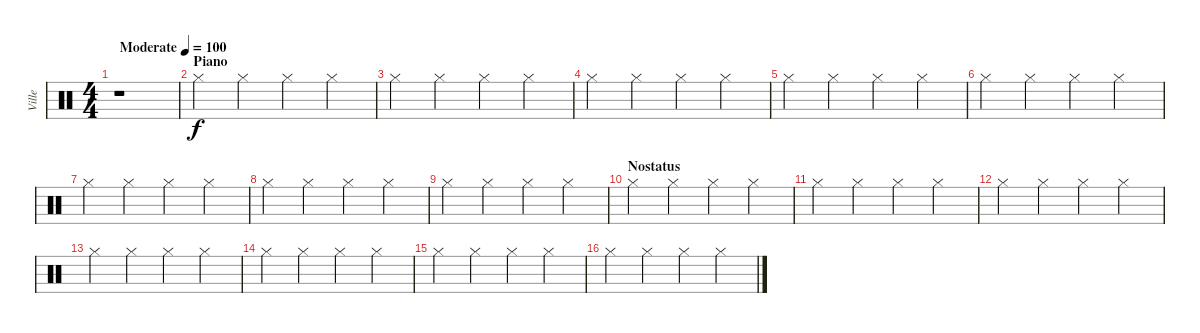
\track ("Ville" "Ville") {instrument percussion}
\staff {score}
\articulation defaults
\ts (4 4)
\tempo (100 "Moderate")
\clef neutral
\ks c
r.1{dy f} |
\section ("" "Piano")
"Hi-Hat (closed)".4 "Hi-Hat (closed)".4 "Hi-Hat (closed)".4 "Hi-Hat (closed)".4 |
"Hi-Hat (closed)".4 "Hi-Hat (closed)".4 "Hi-Hat (closed)".4 "Hi-Hat (closed)".4 |
"Hi-Hat (closed)".4 "Hi-Hat (closed)".4 "Hi-Hat (closed)".4 "Hi-Hat (closed)".4 |
"Hi-Hat (closed)".4 "Hi-Hat (closed)".4 "Hi-Hat (closed)".4 "Hi-Hat (closed)".4 |
"Hi-Hat (closed)".4 "Hi-Hat (closed)".4 "Hi-Hat (closed)".4 "Hi-Hat (closed)".4 |
"Hi-Hat (closed)".4 "Hi-Hat (closed)".4 "Hi-Hat (closed)".4 "Hi-Hat (closed)".4 |
"Hi-Hat (closed)".4 "Hi-Hat (closed)".4 "Hi-Hat (closed)".4 "Hi-Hat (closed)".4 |
"Hi-Hat (closed)".4 "Hi-Hat (closed)".4 "Hi-Hat (closed)".4 "Hi-Hat (closed)".4 |
\section ("" "Nostatus")
"Hi-Hat (closed)".4 "Hi-Hat (closed)".4 "Hi-Hat (closed)".4 "Hi-Hat (closed)".4 |
"Hi-Hat (closed)".4 "Hi-Hat (closed)".4 "Hi-Hat (closed)".4 "Hi-Hat (closed)".4 |
"Hi-Hat (closed)".4 "Hi-Hat (closed)".4 "Hi-Hat (closed)".4 "Hi-Hat (closed)".4 |
"Hi-Hat (closed)".4 "Hi-Hat (closed)".4 "Hi-Hat (closed)".4 "Hi-Hat (closed)".4 |
"Hi-Hat (closed)".4 "Hi-Hat (closed)".4 "Hi-Hat (closed)".4 "Hi-Hat (closed)".4 |
"Hi-Hat (closed)".4 "Hi-Hat (closed)".4 "Hi-Hat (closed)".4 "Hi-Hat (closed)".4 |
"Hi-Hat (closed)".4 "Hi-Hat (closed)".4 "Hi-Hat (closed)".4 "Hi-Hat (closed)".4
